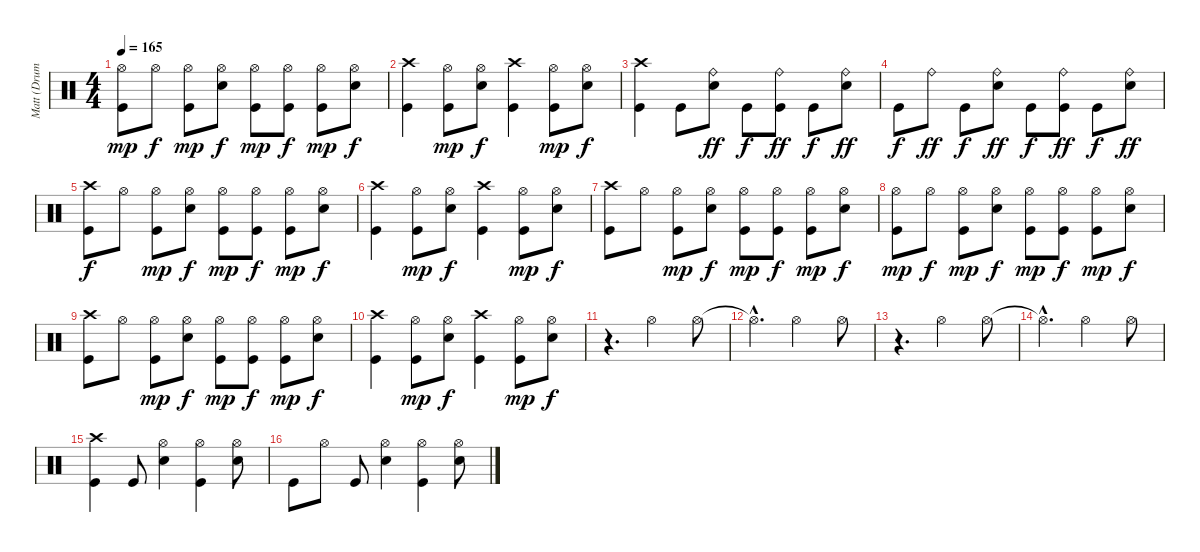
\track ("Matt (Drums)" "Matt (Drum") {instrument percussion}
\staff {score}
\articulation defaults
\ts (4 4)
\tempo 165
\clef neutral
\ks c
("Hi-Hat (open)" "Kick (hit)").8{dy mp} "Hi-Hat (open)".8{dy f} ("Hi-Hat (open)" "Kick (hit)").8{dy mp} ("Hi-Hat (open)" "Electric Snare (hit)").8{dy f} ("Hi-Hat (open)" "Kick (hit)").8{dy mp} ("Hi-Hat (open)" "Kick (hit)").8{dy f} ("Hi-Hat (open)" "Kick (hit)").8{dy mp} ("Hi-Hat (open)" "Electric Snare (hit)").8{dy f} |
("Crash high (hit)" "Kick (hit)").4 ("Hi-Hat (open)" "Kick (hit)").8{dy mp} ("Hi-Hat (open)" "Electric Snare (hit)").8{dy f} ("Crash high (hit)" "Kick (hit)").4 ("Hi-Hat (open)" "Kick (hit)").8{dy mp} ("Hi-Hat (open)" "Electric Snare (hit)").8{dy f} |
("Crash high (hit)" "Kick (hit)").4 "Kick (hit)".8 ("Ride (bell)" "Electric Snare (hit)").8{dy ff} "Kick (hit)".8{dy f} ("Ride (bell)" "Kick (hit)").8{dy ff} "Kick (hit)".8{dy f} ("Ride (bell)" "Electric Snare (hit)").8{dy ff} |
"Kick (hit)".8{dy f} "Ride (bell)".8{dy ff} "Kick (hit)".8{dy f} ("Ride (bell)" "Electric Snare (hit)").8{dy ff} "Kick (hit)".8{dy f} ("Ride (bell)" "Kick (hit)").8{dy ff} "Kick (hit)".8{dy f} ("Ride (bell)" "Electric Snare (hit)").8{dy ff} |
("Crash high (hit)" "Kick (hit)").8{dy f} "Hi-Hat (open)".8 ("Hi-Hat (open)" "Kick (hit)").8{dy mp} ("Hi-Hat (open)" "Electric Snare (hit)").8{dy f} ("Hi-Hat (open)" "Kick (hit)").8{dy mp} ("Hi-Hat (open)" "Kick (hit)").8{dy f} ("Hi-Hat (open)" "Kick (hit)").8{dy mp} ("Hi-Hat (open)" "Electric Snare (hit)").8{dy f} |
("Crash high (hit)" "Kick (hit)").4 ("Hi-Hat (open)" "Kick (hit)").8{dy mp} ("Hi-Hat (open)" "Electric Snare (hit)").8{dy f} ("Crash high (hit)" "Kick (hit)").4 ("Hi-Hat (open)" "Kick (hit)").8{dy mp} ("Hi-Hat (open)" "Electric Snare (hit)").8{dy f} |
("Crash high (hit)" "Kick (hit)").8 "Hi-Hat (open)".8 ("Hi-Hat (open)" "Kick (hit)").8{dy mp} ("Hi-Hat (open)" "Electric Snare (hit)").8{dy f} ("Hi-Hat (open)" "Kick (hit)").8{dy mp} ("Hi-Hat (open)" "Kick (hit)").8{dy f} ("Hi-Hat (open)" "Kick (hit)").8{dy mp} ("Hi-Hat (open)" "Electric Snare (hit)").8{dy f} |
("Hi-Hat (open)" "Kick (hit)").8{dy mp} "Hi-Hat (open)".8{dy f} ("Hi-Hat (open)" "Kick (hit)").8{dy mp} ("Hi-Hat (open)" "Electric Snare (hit)").8{dy f} ("Hi-Hat (open)" "Kick (hit)").8{dy mp} ("Hi-Hat (open)" "Kick (hit)").8{dy f} ("Hi-Hat (open)" "Kick (hit)").8{dy mp} ("Hi-Hat (open)" "Electric Snare (hit)").8{dy f} |
("Crash high (hit)" "Kick (hit)").8 "Hi-Hat (open)".8 ("Hi-Hat (open)" "Kick (hit)").8{dy mp} ("Hi-Hat (open)" "Electric Snare (hit)").8{dy f} ("Hi-Hat (open)" "Kick (hit)").8{dy mp} ("Hi-Hat (open)" "Kick (hit)").8{dy f} ("Hi-Hat (open)" "Kick (hit)").8{dy mp} ("Hi-Hat (open)" "Electric Snare (hit)").8{dy f} |
("Crash high (hit)" "Kick (hit)").4 ("Hi-Hat (open)" "Kick (hit)").8{dy mp} ("Hi-Hat (open)" "Electric Snare (hit)").8{dy f} ("Crash high (hit)" "Kick (hit)").4 ("Hi-Hat (open)" "Kick (hit)").8{dy mp} ("Hi-Hat (open)" "Electric Snare (hit)").8{dy f} |
r.4{d} "Hi-Hat (open)".2 "Hi-Hat (open)".8 |
"Hi-Hat (open)"{hac t}.4{d} "Hi-Hat (open)".2 "Hi-Hat (open)".8 |
r.4{d} "Hi-Hat (open)".2 "Hi-Hat (open)".8 |
"Hi-Hat (open)"{hac t}.4{d} "Hi-Hat (open)".2 "Hi-Hat (open)".8 |
("Crash high (hit)" "Kick (hit)").4 "Kick (hit)".8 ("Hi-Hat (open)" "Electric Snare (hit)").4 ("Hi-Hat (open)" "Kick (hit)").4 ("Hi-Hat (open)" "Electric Snare (hit)").8 |
"Kick (hit)".8 "Hi-Hat (open)".8 "Kick (hit)".8 ("Hi-Hat (open)" "Electric Snare (hit)").4 ("Hi-Hat (open)" "Kick (hit)").4 ("Hi-Hat (open)" "Electric Snare (hit)").8
